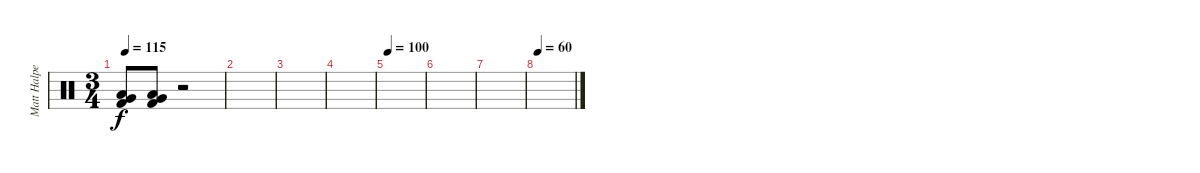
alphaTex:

\track ("Matt Halpern - Drums" "Matt Halpe") {instrument percussion}
\staff {score}
\articulation defaults
\ts (3 4)
\section ("" "")
\tempo 115
\clef neutral
\ks c
("Very Low Tom (hit)" "Low Floor Tom (hit)" "Kick (hit) 2").8{dy f} ("Very Low Tom (hit)" "Low Floor Tom (hit)" "Kick (hit) 2").8 r.2 |
|
|
|
\tempo 100
|
|
|
\tempo 60
